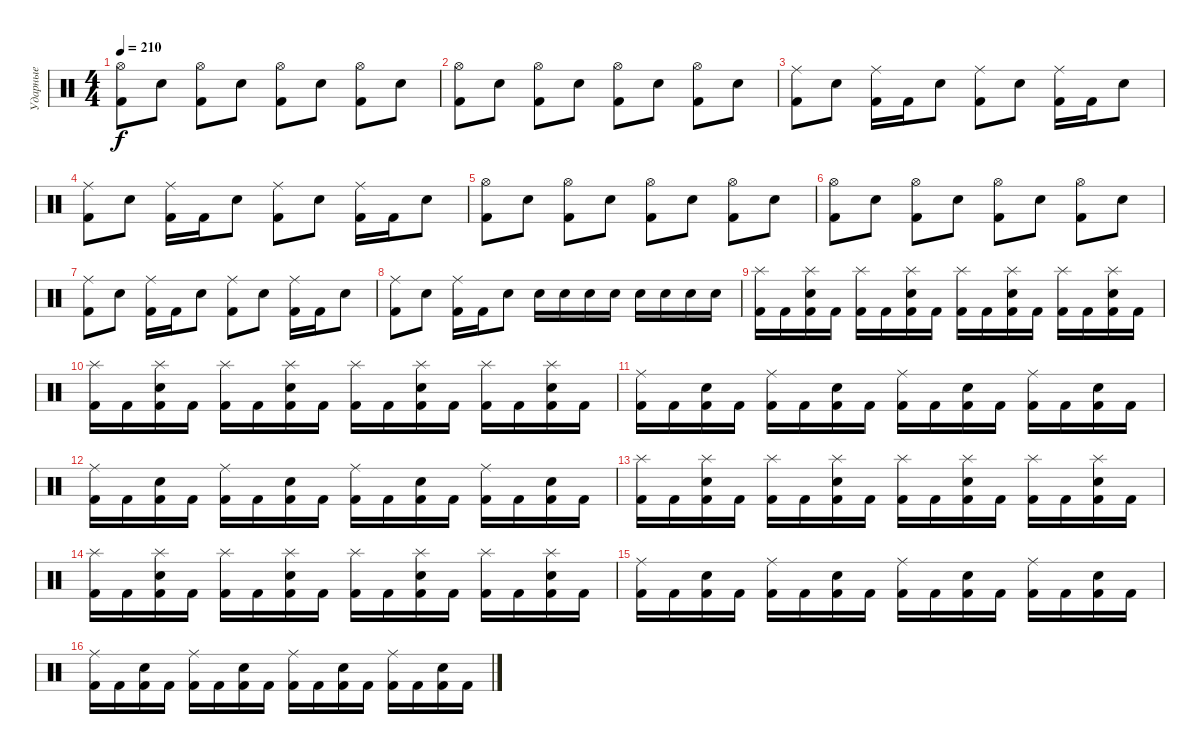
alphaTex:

\track ("Ударные" "Ударные") {instrument percussion}
\staff {score}
\articulation defaults
\ts (4 4)
\tempo 210
\clef neutral
\ks c
("Kick (hit) 2" "Hi-Hat (open)").8{dy f} "Electric Snare (hit)".8 ("Kick (hit) 2" "Hi-Hat (open)").8 "Electric Snare (hit)".8 ("Kick (hit) 2" "Hi-Hat (open)").8 "Electric Snare (hit)".8 ("Kick (hit) 2" "Hi-Hat (open)").8 "Electric Snare (hit)".8 |
("Kick (hit) 2" "Hi-Hat (open)").8 "Electric Snare (hit)".8 ("Kick (hit) 2" "Hi-Hat (open)").8 "Electric Snare (hit)".8 ("Kick (hit) 2" "Hi-Hat (open)").8 "Electric Snare (hit)".8 ("Kick (hit) 2" "Hi-Hat (open)").8 "Electric Snare (hit)".8 |
("Kick (hit) 2" "Ride (middle)").8 "Electric Snare (hit)".8 ("Kick (hit) 2" "Ride (middle)").16 "Kick (hit) 2".16 "Electric Snare (hit)".8 ("Kick (hit) 2" "Ride (middle)").8 "Electric Snare (hit)".8 ("Kick (hit) 2" "Ride (middle)").16 "Kick (hit) 2".16 "Electric Snare (hit)".8 |
("Kick (hit) 2" "Ride (middle)").8 "Electric Snare (hit)".8 ("Kick (hit) 2" "Ride (middle)").16 "Kick (hit) 2".16 "Electric Snare (hit)".8 ("Kick (hit) 2" "Ride (middle)").8 "Electric Snare (hit)".8 ("Kick (hit) 2" "Ride (middle)").16 "Kick (hit) 2".16 "Electric Snare (hit)".8 |
("Kick (hit) 2" "Hi-Hat (open)").8 "Electric Snare (hit)".8 ("Kick (hit) 2" "Hi-Hat (open)").8 "Electric Snare (hit)".8 ("Kick (hit) 2" "Hi-Hat (open)").8 "Electric Snare (hit)".8 ("Kick (hit) 2" "Hi-Hat (open)").8 "Electric Snare (hit)".8 |
("Kick (hit) 2" "Hi-Hat (open)").8 "Electric Snare (hit)".8 ("Kick (hit) 2" "Hi-Hat (open)").8 "Electric Snare (hit)".8 ("Kick (hit) 2" "Hi-Hat (open)").8 "Electric Snare (hit)".8 ("Kick (hit) 2" "Hi-Hat (open)").8 "Electric Snare (hit)".8 |
("Kick (hit) 2" "Ride (middle)").8 "Electric Snare (hit)".8 ("Kick (hit) 2" "Ride (middle)").16 "Kick (hit) 2".16 "Electric Snare (hit)".8 ("Kick (hit) 2" "Ride (middle)").8 "Electric Snare (hit)".8 ("Kick (hit) 2" "Ride (middle)").16 "Kick (hit) 2".16 "Electric Snare (hit)".8 |
("Kick (hit) 2" "Ride (middle)").8 "Electric Snare (hit)".8 ("Kick (hit) 2" "Ride (middle)").16 "Kick (hit) 2".16 "Electric Snare (hit)".8 "Electric Snare (hit)".16 "Electric Snare (hit)".16 "Electric Snare (hit)".16 "Electric Snare (hit)".16 "Electric Snare (hit)".16 "Electric Snare (hit)".16 "Electric Snare (hit)".16 "Electric Snare (hit)".16 |
("Kick (hit) 2" "Splash (hit)").16 "Kick (hit) 2".16 ("Kick (hit) 2" "Electric Snare (hit)" "Splash (hit)").16 "Kick (hit) 2".16 ("Kick (hit) 2" "Splash (hit)").16 "Kick (hit) 2".16 ("Kick (hit) 2" "Electric Snare (hit)" "Splash (hit)").16 "Kick (hit) 2".16 ("Kick (hit) 2" "Splash (hit)").16 "Kick (hit) 2".16 ("Kick (hit) 2" "Electric Snare (hit)" "Splash (hit)").16 "Kick (hit) 2".16 ("Kick (hit) 2" "Splash (hit)").16 "Kick (hit) 2".16 ("Kick (hit) 2" "Electric Snare (hit)" "Splash (hit)").16 "Kick (hit) 2".16 |
("Kick (hit) 2" "Splash (hit)").16 "Kick (hit) 2".16 ("Kick (hit) 2" "Electric Snare (hit)" "Splash (hit)").16 "Kick (hit) 2".16 ("Kick (hit) 2" "Splash (hit)").16 "Kick (hit) 2".16 ("Kick (hit) 2" "Electric Snare (hit)" "Splash (hit)").16 "Kick (hit) 2".16 ("Kick (hit) 2" "Splash (hit)").16 "Kick (hit) 2".16 ("Kick (hit) 2" "Electric Snare (hit)" "Splash (hit)").16 "Kick (hit) 2".16 ("Kick (hit) 2" "Splash (hit)").16 "Kick (hit) 2".16 ("Kick (hit) 2" "Electric Snare (hit)" "Splash (hit)").16 "Kick (hit) 2".16 |
("Kick (hit) 2" "Ride (middle)").16 "Kick (hit) 2".16 ("Kick (hit) 2" "Electric Snare (hit)").16 "Kick (hit) 2".16 ("Kick (hit) 2" "Ride (middle)").16 "Kick (hit) 2".16 ("Kick (hit) 2" "Electric Snare (hit)").16 "Kick (hit) 2".16 ("Kick (hit) 2" "Ride (middle)").16 "Kick (hit) 2".16 ("Kick (hit) 2" "Electric Snare (hit)").16 "Kick (hit) 2".16 ("Kick (hit) 2" "Ride (middle)").16 "Kick (hit) 2".16 ("Kick (hit) 2" "Electric Snare (hit)").16 "Kick (hit) 2".16 |
("Kick (hit) 2" "Ride (middle)").16 "Kick (hit) 2".16 ("Kick (hit) 2" "Electric Snare (hit)").16 "Kick (hit) 2".16 ("Kick (hit) 2" "Ride (middle)").16 "Kick (hit) 2".16 ("Kick (hit) 2" "Electric Snare (hit)").16 "Kick (hit) 2".16 ("Kick (hit) 2" "Ride (middle)").16 "Kick (hit) 2".16 ("Kick (hit) 2" "Electric Snare (hit)").16 "Kick (hit) 2".16 ("Kick (hit) 2" "Ride (middle)").16 "Kick (hit) 2".16 ("Kick (hit) 2" "Electric Snare (hit)").16 "Kick (hit) 2".16 |
("Kick (hit) 2" "Splash (hit)").16 "Kick (hit) 2".16 ("Kick (hit) 2" "Electric Snare (hit)" "Splash (hit)").16 "Kick (hit) 2".16 ("Kick (hit) 2" "Splash (hit)").16 "Kick (hit) 2".16 ("Kick (hit) 2" "Electric Snare (hit)" "Splash (hit)").16 "Kick (hit) 2".16 ("Kick (hit) 2" "Splash (hit)").16 "Kick (hit) 2".16 ("Kick (hit) 2" "Electric Snare (hit)" "Splash (hit)").16 "Kick (hit) 2".16 ("Kick (hit) 2" "Splash (hit)").16 "Kick (hit) 2".16 ("Kick (hit) 2" "Electric Snare (hit)" "Splash (hit)").16 "Kick (hit) 2".16 |
("Kick (hit) 2" "Splash (hit)").16 "Kick (hit) 2".16 ("Kick (hit) 2" "Electric Snare (hit)" "Splash (hit)").16 "Kick (hit) 2".16 ("Kick (hit) 2" "Splash (hit)").16 "Kick (hit) 2".16 ("Kick (hit) 2" "Electric Snare (hit)" "Splash (hit)").16 "Kick (hit) 2".16 ("Kick (hit) 2" "Splash (hit)").16 "Kick (hit) 2".16 ("Kick (hit) 2" "Electric Snare (hit)" "Splash (hit)").16 "Kick (hit) 2".16 ("Kick (hit) 2" "Splash (hit)").16 "Kick (hit) 2".16 ("Kick (hit) 2" "Electric Snare (hit)" "Splash (hit)").16 "Kick (hit) 2".16 |
("Kick (hit) 2" "Ride (middle)").16 "Kick (hit) 2".16 ("Kick (hit) 2" "Electric Snare (hit)").16 "Kick (hit) 2".16 ("Kick (hit) 2" "Ride (middle)").16 "Kick (hit) 2".16 ("Kick (hit) 2" "Electric Snare (hit)").16 "Kick (hit) 2".16 ("Kick (hit) 2" "Ride (middle)").16 "Kick (hit) 2".16 ("Kick (hit) 2" "Electric Snare (hit)").16 "Kick (hit) 2".16 ("Kick (hit) 2" "Ride (middle)").16 "Kick (hit) 2".16 ("Kick (hit) 2" "Electric Snare (hit)").16 "Kick (hit) 2".16 |
("Kick (hit) 2" "Ride (middle)").16 "Kick (hit) 2".16 ("Kick (hit) 2" "Electric Snare (hit)").16 "Kick (hit) 2".16 ("Kick (hit) 2" "Ride (middle)").16 "Kick (hit) 2".16 ("Kick (hit) 2" "Electric Snare (hit)").16 "Kick (hit) 2".16 ("Kick (hit) 2" "Ride (middle)").16 "Kick (hit) 2".16 ("Kick (hit) 2" "Electric Snare (hit)").16 "Kick (hit) 2".16 ("Kick (hit) 2" "Ride (middle)").16 "Kick (hit) 2".16 ("Kick (hit) 2" "Electric Snare (hit)").16 "Kick (hit) 2".16
